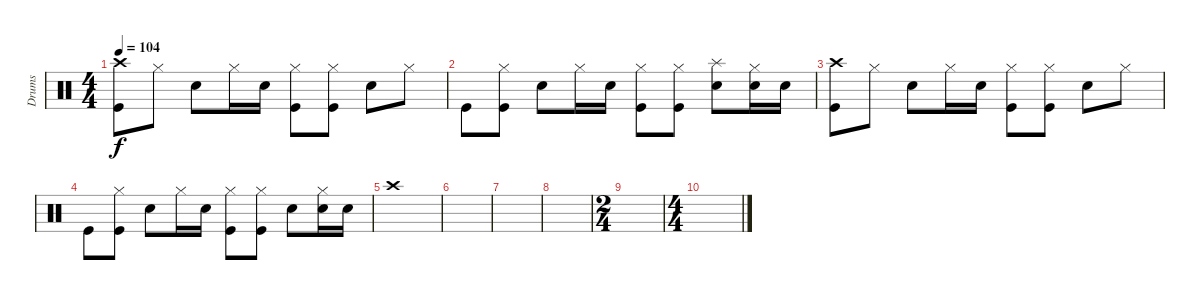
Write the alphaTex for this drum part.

\track ("Drums" "Drums") {instrument percussion}
\staff {score}
\articulation defaults
\ts (4 4)
\tempo 104
\clef neutral
\ks c
("Crash high (hit)" "Kick (hit)").8{dy f} "Hi-Hat (closed)".8 "Snare (hit) 2".8 "Hi-Hat (closed)".16 "Snare (hit) 2".16 ("Hi-Hat (closed)" "Kick (hit)").8 ("Hi-Hat (closed)" "Kick (hit)").8 "Snare (hit) 2".8 "Hi-Hat (closed)".8 |
"Kick (hit)".8 ("Hi-Hat (closed)" "Kick (hit)").8 "Snare (hit) 2".8 "Hi-Hat (closed)".16 "Snare (hit) 2".16 ("Hi-Hat (closed)" "Kick (hit)").8 ("Hi-Hat (closed)" "Kick (hit)").8 ("Splash (hit)" "Snare (hit) 2").8 ("Hi-Hat (closed)" "Snare (hit) 2").16 "Snare (hit) 2".16 |
("Crash high (hit)" "Kick (hit)").8 "Hi-Hat (closed)".8 "Snare (hit) 2".8 "Hi-Hat (closed)".16 "Snare (hit) 2".16 ("Hi-Hat (closed)" "Kick (hit)").8 ("Hi-Hat (closed)" "Kick (hit)").8 "Snare (hit) 2".8 "Hi-Hat (closed)".8 |
"Kick (hit)".8 ("Hi-Hat (closed)" "Kick (hit)").8 "Snare (hit) 2".8 "Hi-Hat (closed)".16 "Snare (hit) 2".16 ("Hi-Hat (closed)" "Kick (hit)").8 ("Hi-Hat (closed)" "Kick (hit)").8 "Snare (hit) 2".8 ("Hi-Hat (closed)" "Snare (hit) 2").16 "Snare (hit) 2".16 |
"Crash high (hit)".1 |
|
|
|
\ts (2 4)
|
\ts (4 4)
